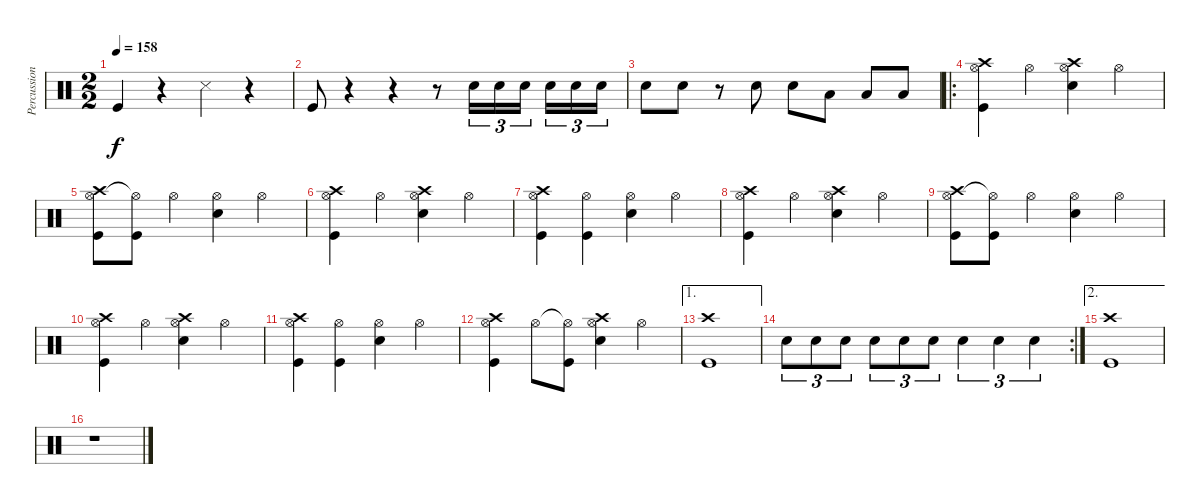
\track ("Percussion" "Percussion") {instrument percussion}
\staff {score}
\articulation defaults
\ts (2 2)
\tempo 158
\clef neutral
\ks c "Kick (hit)".4{dy f}
r.4 "Snare (side stick) 3".4 r.4 |
"Kick (hit)".8 r.4 r.4 r.8 "Snare (hit) 2".16{tu (3 2)} "Snare (hit) 2".16{tu (3 2)} "Snare (hit) 2".16{tu (3 2)} "Snare (hit) 2".16{tu (3 2)} "Snare (hit) 2".16{tu (3 2)} "Snare (hit) 2".16{tu (3 2)} |
"Snare (hit) 2".8 "Snare (hit) 2".8 r.8 "Snare (hit) 2".8 "Snare (hit) 2".8 "Low Tom (hit)".8 "Low Tom (hit)".8 "Low Tom (hit)".8 |
\ro
("Hi-Hat (open)" "Kick (hit)" "Crash high (hit)").4 "Hi-Hat (open)".4 ("Hi-Hat (open)" "Snare (hit) 2" "Crash high (hit)").4 "Hi-Hat (open)".4 |
("Hi-Hat (open)" "Kick (hit)" "Crash high (hit)").8 ("Hi-Hat (open)"{t} "Kick (hit)").8 "Hi-Hat (open)".4 ("Hi-Hat (open)" "Snare (hit) 2").4 "Hi-Hat (open)".4 |
("Hi-Hat (open)" "Kick (hit)" "Crash high (hit)").4 "Hi-Hat (open)".4 ("Hi-Hat (open)" "Snare (hit) 2" "Crash high (hit)").4 "Hi-Hat (open)".4 |
("Hi-Hat (open)" "Kick (hit)" "Crash high (hit)").4 ("Hi-Hat (open)" "Kick (hit)").4 ("Hi-Hat (open)" "Snare (hit) 2").4 "Hi-Hat (open)".4 |
("Hi-Hat (open)" "Kick (hit)" "Crash high (hit)").4 "Hi-Hat (open)".4 ("Hi-Hat (open)" "Snare (hit) 2" "Crash high (hit)").4 "Hi-Hat (open)".4 |
("Hi-Hat (open)" "Kick (hit)" "Crash high (hit)").8 ("Hi-Hat (open)"{t} "Kick (hit)").8 "Hi-Hat (open)".4 ("Hi-Hat (open)" "Snare (hit) 2").4 "Hi-Hat (open)".4 |
("Hi-Hat (open)" "Kick (hit)" "Crash high (hit)").4 "Hi-Hat (open)".4 ("Hi-Hat (open)" "Snare (hit) 2" "Crash high (hit)").4 "Hi-Hat (open)".4 |
("Hi-Hat (open)" "Kick (hit)" "Crash high (hit)").4 ("Hi-Hat (open)" "Kick (hit)").4 ("Hi-Hat (open)" "Snare (hit) 2").4 "Hi-Hat (open)".4 |
("Hi-Hat (open)" "Kick (hit)" "Crash high (hit)").4 "Hi-Hat (open)".8 ("Hi-Hat (open)"{t} "Kick (hit)").8 ("Hi-Hat (open)" "Snare (hit) 2" "Crash high (hit)").4 "Hi-Hat (open)".4 |
\ae 1
("Crash high (hit)" "Kick (hit)").1 |
\rc 2 "Snare (hit) 2".8{tu (3 2)} "Snare (hit) 2".8{tu (3 2)} "Snare (hit) 2".8{tu (3 2)} "Snare (hit) 2".8{tu (3 2)} "Snare (hit) 2".8{tu (3 2)} "Snare (hit) 2".8{tu (3 2)} "Snare (hit) 2".4{tu (3 2)} "Snare (hit) 2".4{tu (3 2)} "Snare (hit) 2".4{tu (3 2)}
|
\ae 2
("Crash high (hit)" "Kick (hit)").1 |
r.1
